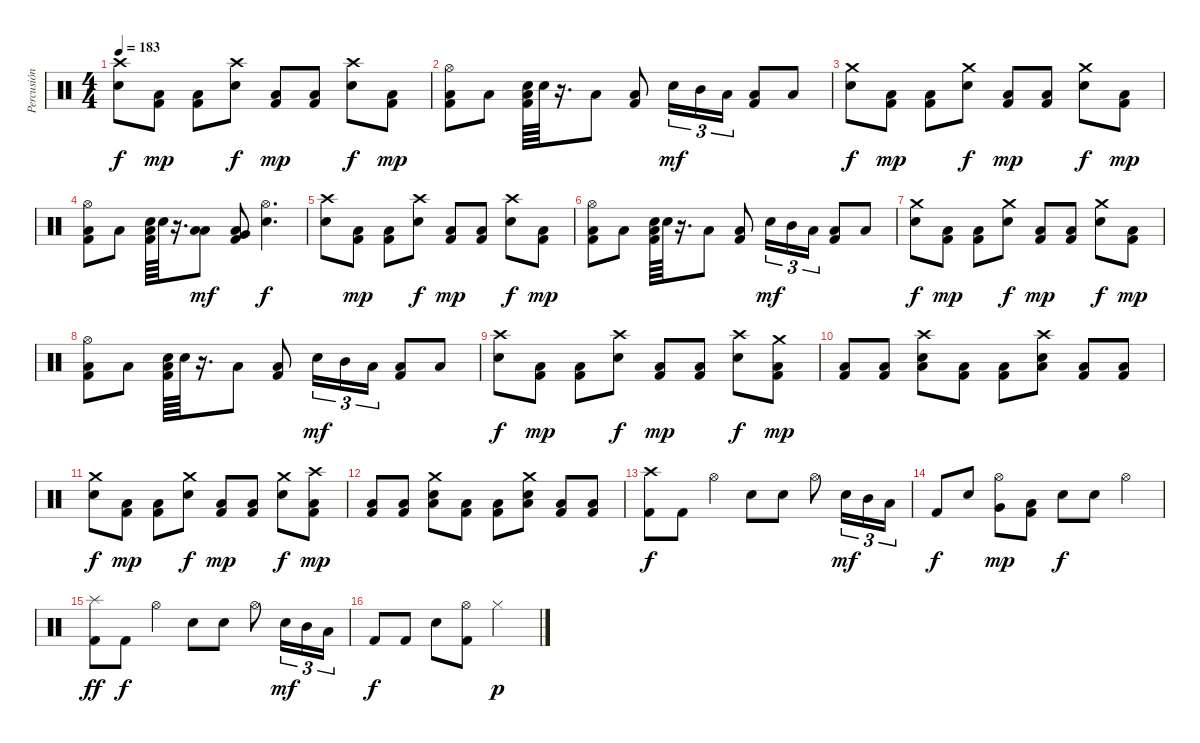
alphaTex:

\track ("Percusión" "Percusión") {instrument percussion}
\staff {score}
\articulation defaults
\ts (4 4)
\tempo 183
\clef neutral
\ks c
("Crash high (hit)" "Electric Snare (hit)").8{dy f} ("Kick (hit) 2" "Low Floor Tom (hit)").8{dy mp} ("Kick (hit) 2" "Low Floor Tom (hit)").8 ("Crash high (hit)" "Electric Snare (hit)").8{dy f} ("Kick (hit) 2" "Low Floor Tom (hit)").8{dy mp} ("Kick (hit) 2" "Low Floor Tom (hit)").8 ("Crash high (hit)" "Electric Snare (hit)").8{dy f} ("Kick (hit) 2" "Low Floor Tom (hit)").8{dy mp} |
("Low Floor Tom (hit)" "Hi-Hat (open)" "Kick (hit) 2").8 "Low Floor Tom (hit)".8 ("Low Floor Tom (hit)" "Electric Snare (hit)" "Kick (hit) 2").64 "Electric Snare (hit)".64 r.16{d} "Low Floor Tom (hit)".8 ("Low Floor Tom (hit)" "Kick (hit) 2").8 "Electric Snare (hit)".16{tu (3 2) dy mf} "Mid Tom (hit)".16{tu (3 2)} "Low Tom (hit)".16{tu (3 2)} ("Low Tom (hit)" "Kick (hit) 2").8 "Low Floor Tom (hit)".8 |
("Crash medium (hit)" "Electric Snare (hit)").8{dy f} ("Kick (hit) 2" "Low Floor Tom (hit)").8{dy mp} ("Kick (hit) 2" "Low Floor Tom (hit)").8 ("Crash medium (hit)" "Electric Snare (hit)").8{dy f} ("Kick (hit) 2" "Low Floor Tom (hit)").8{dy mp} ("Kick (hit) 2" "Low Floor Tom (hit)").8 ("Crash medium (hit)" "Electric Snare (hit)").8{dy f} ("Kick (hit) 2" "Low Floor Tom (hit)").8{dy mp} |
("Low Floor Tom (hit)" "Hi-Hat (open)" "Kick (hit) 2").8 "Low Floor Tom (hit)".8 ("Low Floor Tom (hit)" "Electric Snare (hit)" "Kick (hit) 2").64 "Electric Snare (hit)".64 r.16{d} ("Low Floor Tom (hit)" "Low Tom (hit)").8{dy mf} ("Low Floor Tom (hit)" "Very Low Tom (hit)" "Kick (hit) 2").8 ("Hi-Hat (open)" "Electric Snare (hit)").4{d dy f} |
("Crash high (hit)" "Electric Snare (hit)").8 ("Kick (hit) 2" "Low Floor Tom (hit)").8{dy mp} ("Kick (hit) 2" "Low Floor Tom (hit)").8 ("Crash high (hit)" "Electric Snare (hit)").8{dy f} ("Kick (hit) 2" "Low Floor Tom (hit)").8{dy mp} ("Kick (hit) 2" "Low Floor Tom (hit)").8 ("Crash high (hit)" "Electric Snare (hit)").8{dy f} ("Kick (hit) 2" "Low Floor Tom (hit)").8{dy mp} |
("Low Floor Tom (hit)" "Hi-Hat (open)" "Kick (hit) 2").8 "Low Floor Tom (hit)".8 ("Low Floor Tom (hit)" "Electric Snare (hit)" "Kick (hit) 2").64 "Electric Snare (hit)".64 r.16{d} "Low Floor Tom (hit)".8 ("Low Floor Tom (hit)" "Kick (hit) 2").8 "Electric Snare (hit)".16{tu (3 2) dy mf} "Mid Tom (hit)".16{tu (3 2)} "Low Tom (hit)".16{tu (3 2)} ("Low Tom (hit)" "Kick (hit) 2").8 "Low Floor Tom (hit)".8 |
("Crash medium (hit)" "Electric Snare (hit)").8{dy f} ("Kick (hit) 2" "Low Floor Tom (hit)").8{dy mp} ("Kick (hit) 2" "Low Floor Tom (hit)").8 ("Crash medium (hit)" "Electric Snare (hit)").8{dy f} ("Kick (hit) 2" "Low Floor Tom (hit)").8{dy mp} ("Kick (hit) 2" "Low Floor Tom (hit)").8 ("Crash medium (hit)" "Electric Snare (hit)").8{dy f} ("Kick (hit) 2" "Low Floor Tom (hit)").8{dy mp} |
("Low Floor Tom (hit)" "Hi-Hat (open)" "Kick (hit) 2").8 "Low Floor Tom (hit)".8 ("Low Floor Tom (hit)" "Electric Snare (hit)" "Kick (hit) 2").64 "Electric Snare (hit)".64 r.16{d} "Low Floor Tom (hit)".8 ("Low Floor Tom (hit)" "Kick (hit) 2").8 "Electric Snare (hit)".16{tu (3 2) dy mf} "Mid Tom (hit)".16{tu (3 2)} "Low Tom (hit)".16{tu (3 2)} ("Low Tom (hit)" "Kick (hit) 2").8 "Low Floor Tom (hit)".8 |
("Crash high (hit)" "Electric Snare (hit)").8{dy f} ("Kick (hit) 2" "Low Floor Tom (hit)").8{dy mp} ("Kick (hit) 2" "Low Floor Tom (hit)").8 ("Crash high (hit)" "Electric Snare (hit)").8{dy f} ("Kick (hit) 2" "Low Floor Tom (hit)").8{dy mp} ("Kick (hit) 2" "Low Floor Tom (hit)").8 ("Crash high (hit)" "Electric Snare (hit)").8{dy f} ("Crash medium (hit)" "Kick (hit) 2" "Low Floor Tom (hit)").8{dy mp} |
("Kick (hit) 2" "Low Floor Tom (hit)").8 ("Kick (hit) 2" "Low Floor Tom (hit)").8 ("Crash high (hit)" "Electric Snare (hit)" "Low Floor Tom (hit)").8 ("Kick (hit) 2" "Low Floor Tom (hit)").8 ("Kick (hit) 2" "Low Floor Tom (hit)").8 ("Crash high (hit)" "Electric Snare (hit)" "Low Floor Tom (hit)").8 ("Kick (hit) 2" "Low Floor Tom (hit)").8 ("Kick (hit) 2" "Low Floor Tom (hit)").8 |
("Crash medium (hit)" "Electric Snare (hit)").8{dy f} ("Kick (hit) 2" "Low Floor Tom (hit)").8{dy mp} ("Kick (hit) 2" "Low Floor Tom (hit)").8 ("Crash medium (hit)" "Electric Snare (hit)").8{dy f} ("Kick (hit) 2" "Low Floor Tom (hit)").8{dy mp} ("Kick (hit) 2" "Low Floor Tom (hit)").8 ("Crash medium (hit)" "Electric Snare (hit)").8{dy f} ("Crash high (hit)" "Kick (hit) 2" "Low Floor Tom (hit)").8{dy mp} |
("Kick (hit) 2" "Low Floor Tom (hit)").8 ("Kick (hit) 2" "Low Floor Tom (hit)").8 ("Crash medium (hit)" "Electric Snare (hit)" "Low Floor Tom (hit)").8 ("Kick (hit) 2" "Low Floor Tom (hit)").8 ("Kick (hit) 2" "Low Floor Tom (hit)").8 ("Crash medium (hit)" "Electric Snare (hit)" "Low Floor Tom (hit)").8 ("Kick (hit) 2" "Low Floor Tom (hit)").8 ("Kick (hit) 2" "Low Floor Tom (hit)").8 |
("Crash high (hit)" "Kick (hit) 2").8{dy f} "Kick (hit) 2".8 "Hi-Hat (open)".4 "Electric Snare (hit)".8 "Electric Snare (hit)".8 "Hi-Hat (open)".8 "Electric Snare (hit)".16{tu (3 2) dy mf} "Mid Tom (hit)".16{tu (3 2)} "Low Tom (hit)".16{tu (3 2)} |
"Kick (hit) 2".8{dy f} "Electric Snare (hit)".8 ("Hi-Hat (open)" "Very Low Tom (hit)").8{dy mp} ("Kick (hit) 2" "Low Floor Tom (hit)").8 "Electric Snare (hit)".8{dy f} "Electric Snare (hit)".8 "Hi-Hat (open)".4 |
("Splash (hit)" "Kick (hit) 2").8{dy ff} "Kick (hit) 2".8{dy f} "Hi-Hat (open)".4 "Electric Snare (hit)".8 "Electric Snare (hit)".8 "Hi-Hat (open)".8 "Electric Snare (hit)".16{tu (3 2) dy mf} "Mid Tom (hit)".16{tu (3 2)} "Low Tom (hit)".16{tu (3 2)} |
"Kick (hit) 2".8{dy f} "Kick (hit) 2".8 "Electric Snare (hit)".8 ("Hi-Hat (open)" "Kick (hit) 2").8 "Hi-Hat (closed)".2{dy p}
